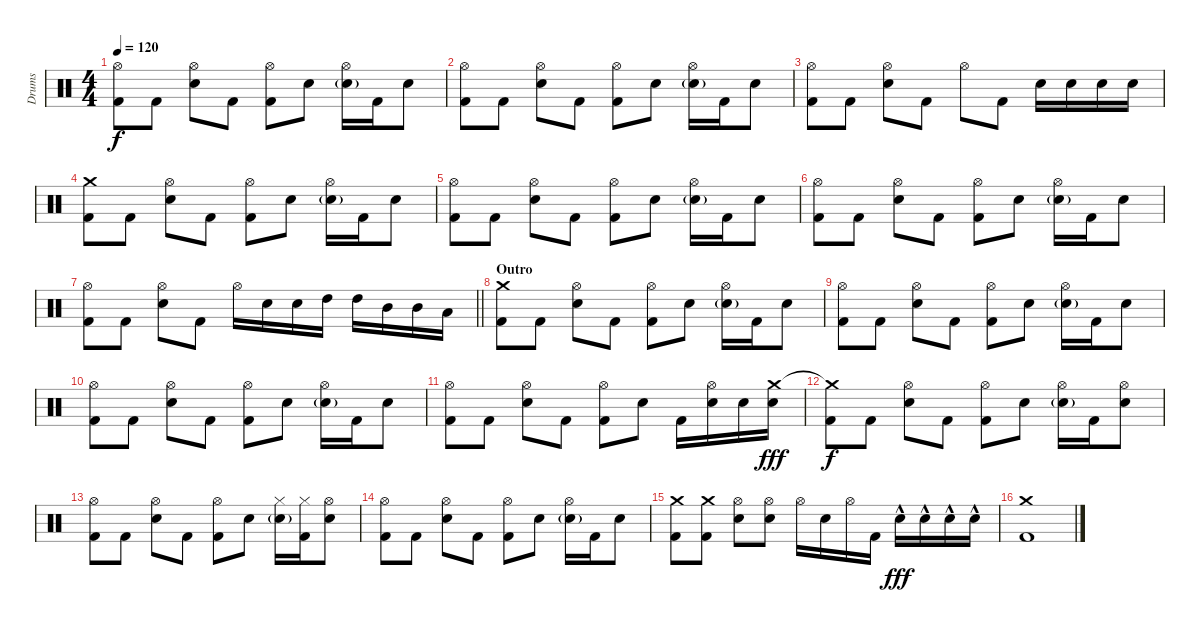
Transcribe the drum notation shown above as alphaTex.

\track ("Drums" "Drums") {instrument percussion}
\staff {score}
\articulation defaults
\ts (4 4)
\tempo 120
\clef neutral
\ks c
("Hi-Hat (open)" "Kick (hit) 2").8{dy f} "Kick (hit) 2".8 ("Hi-Hat (open)" "Electric Snare (hit)").8 "Kick (hit) 2".8 ("Hi-Hat (open)" "Kick (hit) 2").8 "Electric Snare (hit)".8 ("Hi-Hat (open)" "Electric Snare (hit)"{g}).16 "Kick (hit) 2".16 "Electric Snare (hit)".8 |
("Hi-Hat (open)" "Kick (hit) 2").8 "Kick (hit) 2".8 ("Hi-Hat (open)" "Electric Snare (hit)").8 "Kick (hit) 2".8 ("Hi-Hat (open)" "Kick (hit) 2").8 "Electric Snare (hit)".8 ("Hi-Hat (open)" "Electric Snare (hit)"{g}).16 "Kick (hit) 2".16 "Electric Snare (hit)".8 |
("Hi-Hat (open)" "Kick (hit) 2").8 "Kick (hit) 2".8 ("Hi-Hat (open)" "Electric Snare (hit)").8 "Kick (hit) 2".8 "Hi-Hat (open)".8 "Kick (hit) 2".8 "Electric Snare (hit)".16 "Electric Snare (hit)".16 "Electric Snare (hit)".16 "Electric Snare (hit)".16 |
("Crash medium (hit)" "Kick (hit) 2").8 "Kick (hit) 2".8 ("Hi-Hat (open)" "Electric Snare (hit)").8 "Kick (hit) 2".8 ("Hi-Hat (open)" "Kick (hit) 2").8 "Electric Snare (hit)".8 ("Hi-Hat (open)" "Electric Snare (hit)"{g}).16 "Kick (hit) 2".16 "Electric Snare (hit)".8 |
("Hi-Hat (open)" "Kick (hit) 2").8 "Kick (hit) 2".8 ("Hi-Hat (open)" "Electric Snare (hit)").8 "Kick (hit) 2".8 ("Hi-Hat (open)" "Kick (hit) 2").8 "Electric Snare (hit)".8 ("Hi-Hat (open)" "Electric Snare (hit)"{g}).16 "Kick (hit) 2".16 "Electric Snare (hit)".8 |
("Hi-Hat (open)" "Kick (hit) 2").8 "Kick (hit) 2".8 ("Hi-Hat (open)" "Electric Snare (hit)").8 "Kick (hit) 2".8 ("Hi-Hat (open)" "Kick (hit) 2").8 "Electric Snare (hit)".8 ("Hi-Hat (open)" "Electric Snare (hit)"{g}).16 "Kick (hit) 2".16 "Electric Snare (hit)".8 |
\barLineRight lightlight
("Hi-Hat (open)" "Kick (hit) 2").8 "Kick (hit) 2".8 ("Hi-Hat (open)" "Electric Snare (hit)").8 "Kick (hit) 2".8 "Hi-Hat (open)".16 "Snare (hit) 2".16 "Snare (hit) 2".16 "High Tom (hit)".16 "High Tom (hit)".16 "Mid Tom (hit)".16 "Mid Tom (hit)".16 "Low Tom (hit)".16 |
\section ("" "Outro")
("Crash medium (hit)" "Kick (hit) 2").8 "Kick (hit) 2".8 ("Hi-Hat (open)" "Electric Snare (hit)").8 "Kick (hit) 2".8 ("Hi-Hat (open)" "Kick (hit) 2").8 "Electric Snare (hit)".8 ("Hi-Hat (open)" "Electric Snare (hit)"{g}).16 "Kick (hit) 2".16 "Electric Snare (hit)".8 |
("Hi-Hat (open)" "Kick (hit) 2").8 "Kick (hit) 2".8 ("Hi-Hat (open)" "Electric Snare (hit)").8 "Kick (hit) 2".8 ("Hi-Hat (open)" "Kick (hit) 2").8 "Electric Snare (hit)".8 ("Hi-Hat (open)" "Electric Snare (hit)"{g}).16 "Kick (hit) 2".16 "Electric Snare (hit)".8 |
("Hi-Hat (open)" "Kick (hit) 2").8 "Kick (hit) 2".8 ("Hi-Hat (open)" "Electric Snare (hit)").8 "Kick (hit) 2".8 ("Hi-Hat (open)" "Kick (hit) 2").8 "Electric Snare (hit)".8 ("Hi-Hat (open)" "Electric Snare (hit)"{g}).16 "Kick (hit) 2".16 "Electric Snare (hit)".8 |
("Hi-Hat (open)" "Kick (hit) 2").8 "Kick (hit) 2".8 ("Hi-Hat (open)" "Electric Snare (hit)").8 "Kick (hit) 2".8 ("Hi-Hat (open)" "Kick (hit) 2").8 "Electric Snare (hit)".8 "Kick (hit) 2".16 ("Hi-Hat (open)" "Electric Snare (hit)").16 "Electric Snare (hit)".16 ("Crash medium (hit)" "Electric Snare (hit)").16{dy fff} |
("Crash medium (hit)"{t} "Kick (hit) 2").8{dy f} "Kick (hit) 2".8 ("Hi-Hat (open)" "Electric Snare (hit)").8 "Kick (hit) 2".8 ("Hi-Hat (open)" "Kick (hit) 2").8 "Electric Snare (hit)".8 ("Hi-Hat (open)" "Electric Snare (hit)"{g}).16 "Kick (hit) 2".16 ("Hi-Hat (open)" "Electric Snare (hit)").8 |
("Hi-Hat (open)" "Kick (hit) 2").8 "Kick (hit) 2".8 ("Hi-Hat (open)" "Electric Snare (hit)").8 "Kick (hit) 2".8 ("Hi-Hat (open)" "Kick (hit) 2").8 "Electric Snare (hit)".8 ("Hi-Hat (closed)" "Electric Snare (hit)"{g}).16 ("Hi-Hat (closed)" "Kick (hit) 2").16 ("Hi-Hat (open)" "Electric Snare (hit)").8 |
("Hi-Hat (open)" "Kick (hit) 2").8 "Kick (hit) 2".8 ("Hi-Hat (open)" "Electric Snare (hit)").8 "Kick (hit) 2".8 ("Hi-Hat (open)" "Kick (hit) 2").8 "Electric Snare (hit)".8 ("Hi-Hat (open)" "Electric Snare (hit)"{g}).16 "Kick (hit) 2".16 "Electric Snare (hit)".8 |
("Crash medium (hit)" "Kick (hit) 2").8 ("Crash medium (hit)" "Kick (hit) 2").8 ("Hi-Hat (open)" "Electric Snare (hit)").8 ("Hi-Hat (open)" "Electric Snare (hit)").8 "Hi-Hat (open)".16 "Electric Snare (hit)".16 "Hi-Hat (open)".16 "Kick (hit) 2".16 "Electric Snare (hit)"{hac}.16{dy fff} "Electric Snare (hit)"{hac}.16 "Electric Snare (hit)"{hac}.16 "Electric Snare (hit)"{hac}.16 |
("Crash medium (hit)" "Kick (hit) 2").1
